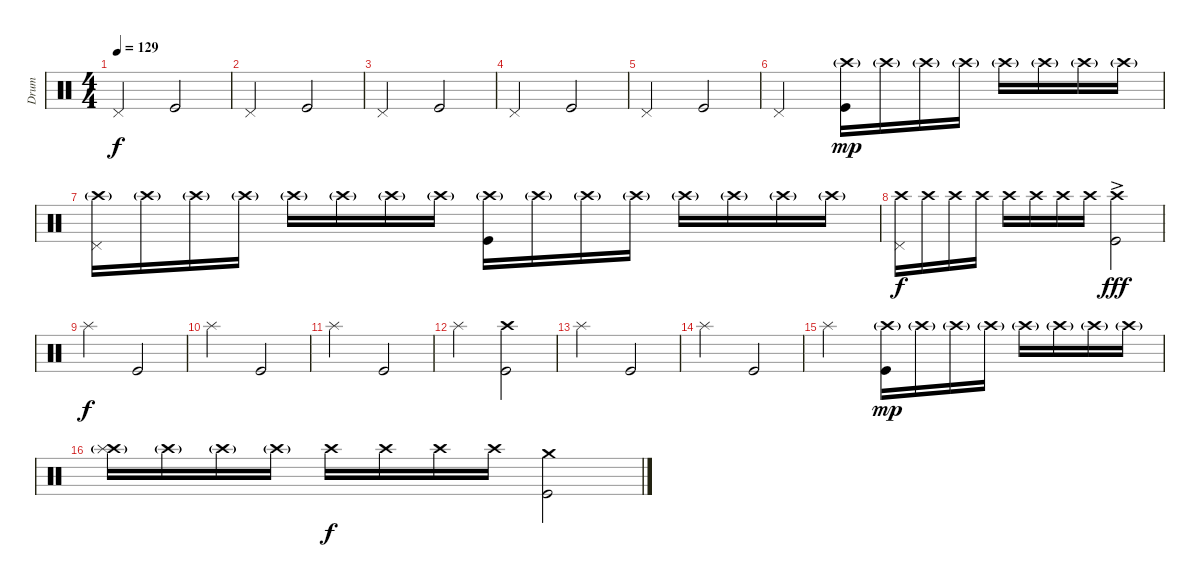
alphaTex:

\track ("Drum" "Drum") {instrument percussion}
\staff {score}
\articulation defaults
\ts (4 4)
\tempo 129
\clef neutral
\ks c "Pedal Hi-Hat (hit)".2{dy f} "Kick (hit)".2
|
"Pedal Hi-Hat (hit)".2 "Kick (hit)".2 |
"Pedal Hi-Hat (hit)".2 "Kick (hit)".2 |
"Pedal Hi-Hat (hit)".2 "Kick (hit)".2 |
"Pedal Hi-Hat (hit)".2 "Kick (hit)".2 |
"Pedal Hi-Hat (hit)".2 ("Crash high (hit)"{g} "Kick (hit)").16{dy mp} "Crash high (hit)"{g}.16 "Crash high (hit)"{g}.16 "Crash high (hit)"{g}.16 "Crash high (hit)"{g}.16 "Crash high (hit)"{g}.16 "Crash high (hit)"{g}.16 "Crash high (hit)"{g}.16 |
("Crash high (hit)"{g} "Pedal Hi-Hat (hit)").16 "Crash high (hit)"{g}.16 "Crash high (hit)"{g}.16 "Crash high (hit)"{g}.16 "Crash high (hit)"{g}.16 "Crash high (hit)"{g}.16 "Crash high (hit)"{g}.16 "Crash high (hit)"{g}.16 ("Crash high (hit)"{g} "Kick (hit)").16 "Crash high (hit)"{g}.16 "Crash high (hit)"{g}.16 "Crash high (hit)"{g}.16 "Crash high (hit)"{g}.16 "Crash high (hit)"{g}.16 "Crash high (hit)"{g}.16 "Crash high (hit)"{g}.16 |
("Crash high (hit)" "Pedal Hi-Hat (hit)").16{dy f} "Crash high (hit)".16 "Crash high (hit)".16 "Crash high (hit)".16 "Crash high (hit)".16 "Crash high (hit)".16 "Crash high (hit)".16 "Crash high (hit)".16 ("Crash high (hit)"{ac} "Kick (hit)").2{dy fff} |
"Splash (hit)".2{dy f} "Kick (hit)".2 |
"Splash (hit)".2 "Kick (hit)".2 |
"Splash (hit)".2 "Kick (hit)".2 |
"Splash (hit)".2 ("Crash high (hit)" "Kick (hit)").2 |
"Splash (hit)".2 "Kick (hit)".2 |
"Splash (hit)".2 "Kick (hit)".2 |
"Splash (hit)".2 ("Crash high (hit)"{g} "Kick (hit)").16{dy mp} "Crash high (hit)"{g}.16 "Crash high (hit)"{g}.16 "Crash high (hit)"{g}.16 "Crash high (hit)"{g}.16 "Crash high (hit)"{g}.16 "Crash high (hit)"{g}.16 "Crash high (hit)"{g}.16 |
("Crash high (hit)"{g} "Splash (hit)").16 "Crash high (hit)"{g}.16 "Crash high (hit)"{g}.16 "Crash high (hit)"{g}.16 "Crash high (hit)".16{dy f} "Crash high (hit)".16 "Crash high (hit)".16 "Crash high (hit)".16 ("Crash medium (hit)" "Kick (hit)").2
